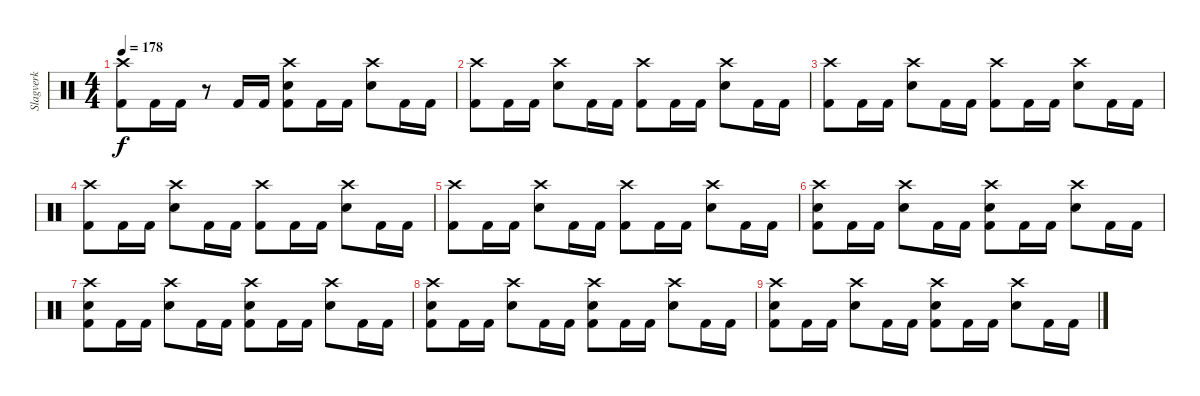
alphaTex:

\track ("Slagverk" "Slagverk") {instrument percussion}
\staff {score}
\articulation defaults
\ts (4 4)
\tempo 178
\clef neutral
\ks c
("Crash high (hit)" "Kick (hit) 2").8{dy f} "Kick (hit) 2".16 "Kick (hit) 2".16 r.8 "Kick (hit) 2".16 "Kick (hit) 2".16 ("Crash high (hit)" "Electric Snare (hit)" "Kick (hit) 2").8 "Kick (hit) 2".16 "Kick (hit) 2".16 ("Crash high (hit)" "Electric Snare (hit)").8 "Kick (hit) 2".16 "Kick (hit) 2".16 |
("Crash high (hit)" "Kick (hit) 2").8 "Kick (hit) 2".16 "Kick (hit) 2".16 ("Crash high (hit)" "Electric Snare (hit)").8 "Kick (hit) 2".16 "Kick (hit) 2".16 ("Crash high (hit)" "Kick (hit) 2").8 "Kick (hit) 2".16 "Kick (hit) 2".16 ("Crash high (hit)" "Electric Snare (hit)").8 "Kick (hit) 2".16 "Kick (hit) 2".16 |
("Crash high (hit)" "Kick (hit) 2").8 "Kick (hit) 2".16 "Kick (hit) 2".16 ("Crash high (hit)" "Electric Snare (hit)").8 "Kick (hit) 2".16 "Kick (hit) 2".16 ("Crash high (hit)" "Kick (hit) 2").8 "Kick (hit) 2".16 "Kick (hit) 2".16 ("Crash high (hit)" "Electric Snare (hit)").8 "Kick (hit) 2".16 "Kick (hit) 2".16 |
("Crash high (hit)" "Kick (hit) 2").8 "Kick (hit) 2".16 "Kick (hit) 2".16 ("Crash high (hit)" "Electric Snare (hit)").8 "Kick (hit) 2".16 "Kick (hit) 2".16 ("Crash high (hit)" "Kick (hit) 2").8 "Kick (hit) 2".16 "Kick (hit) 2".16 ("Crash high (hit)" "Electric Snare (hit)").8 "Kick (hit) 2".16 "Kick (hit) 2".16 |
("Crash high (hit)" "Kick (hit) 2").8 "Kick (hit) 2".16 "Kick (hit) 2".16 ("Crash high (hit)" "Electric Snare (hit)").8 "Kick (hit) 2".16 "Kick (hit) 2".16 ("Crash high (hit)" "Kick (hit) 2").8 "Kick (hit) 2".16 "Kick (hit) 2".16 ("Crash high (hit)" "Electric Snare (hit)").8 "Kick (hit) 2".16 "Kick (hit) 2".16 |
("Crash high (hit)" "Electric Snare (hit)" "Kick (hit) 2").8 "Kick (hit) 2".16 "Kick (hit) 2".16 ("Crash high (hit)" "Electric Snare (hit)").8 "Kick (hit) 2".16 "Kick (hit) 2".16 ("Crash high (hit)" "Electric Snare (hit)" "Kick (hit) 2").8 "Kick (hit) 2".16 "Kick (hit) 2".16 ("Crash high (hit)" "Electric Snare (hit)").8 "Kick (hit) 2".16 "Kick (hit) 2".16 |
("Crash high (hit)" "Electric Snare (hit)" "Kick (hit) 2").8 "Kick (hit) 2".16 "Kick (hit) 2".16 ("Crash high (hit)" "Electric Snare (hit)").8 "Kick (hit) 2".16 "Kick (hit) 2".16 ("Crash high (hit)" "Electric Snare (hit)" "Kick (hit) 2").8 "Kick (hit) 2".16 "Kick (hit) 2".16 ("Crash high (hit)" "Electric Snare (hit)").8 "Kick (hit) 2".16 "Kick (hit) 2".16 |
("Crash high (hit)" "Electric Snare (hit)" "Kick (hit) 2").8 "Kick (hit) 2".16 "Kick (hit) 2".16 ("Crash high (hit)" "Electric Snare (hit)").8 "Kick (hit) 2".16 "Kick (hit) 2".16 ("Crash high (hit)" "Electric Snare (hit)" "Kick (hit) 2").8 "Kick (hit) 2".16 "Kick (hit) 2".16 ("Crash high (hit)" "Electric Snare (hit)").8 "Kick (hit) 2".16 "Kick (hit) 2".16 |
("Crash high (hit)" "Electric Snare (hit)" "Kick (hit) 2").8 "Kick (hit) 2".16 "Kick (hit) 2".16 ("Crash high (hit)" "Electric Snare (hit)").8 "Kick (hit) 2".16 "Kick (hit) 2".16 ("Crash high (hit)" "Electric Snare (hit)" "Kick (hit) 2").8 "Kick (hit) 2".16 "Kick (hit) 2".16 ("Crash high (hit)" "Electric Snare (hit)").8 "Kick (hit) 2".16 "Kick (hit) 2".16
